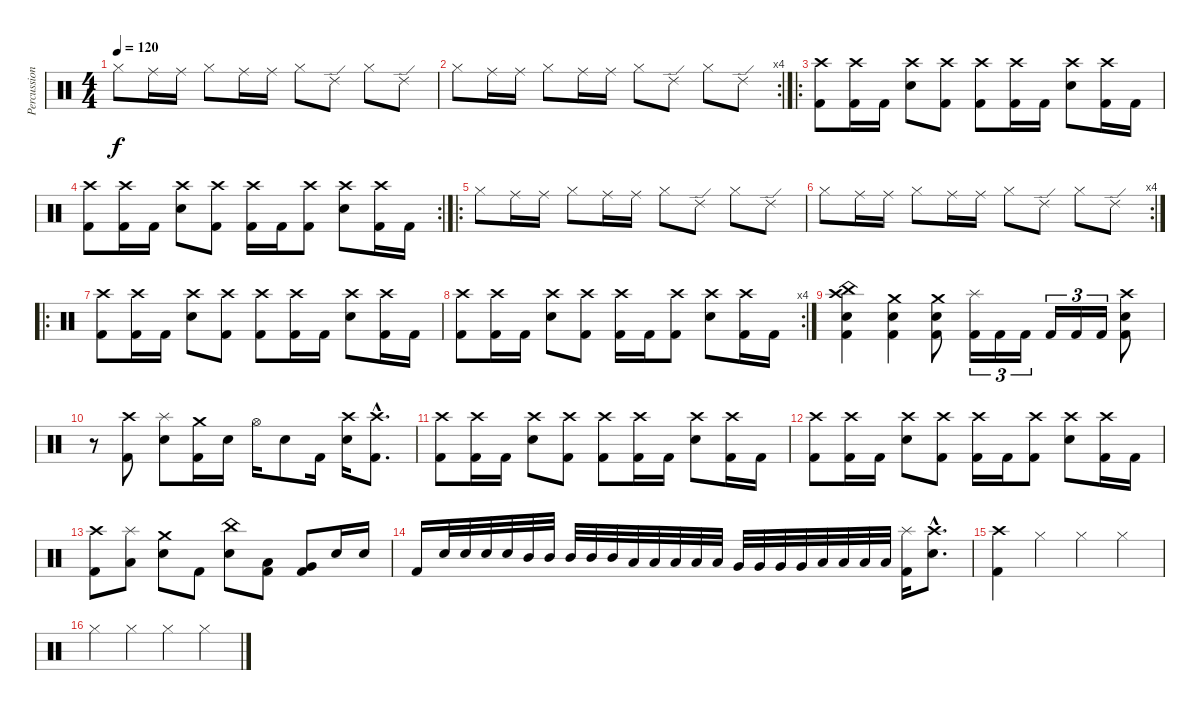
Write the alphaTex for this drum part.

\track ("Percussion" "Percussion") {instrument percussion}
\staff {score}
\articulation defaults
\ts (4 4)
\tempo 120
\clef neutral
\ks c "Hi-Hat (closed)".8{dy f} "Ride (middle)".16 "Ride (middle)".16 "Hi-Hat (closed)".8 "Ride (middle)".16 "Ride (middle)".16 "Hi-Hat (closed)".8 "Ride (edge) 2".8 "Hi-Hat (closed)".8 "Ride (edge) 2".8
|
\rc 4 "Hi-Hat (closed)".8 "Ride (middle)".16 "Ride (middle)".16 "Hi-Hat (closed)".8 "Ride (middle)".16 "Ride (middle)".16 "Hi-Hat (closed)".8 "Ride (edge) 2".8 "Hi-Hat (closed)".8 "Ride (edge) 2".8
|
\ro
("Crash high (hit)" "Kick (hit) 2").8 ("Crash high (hit)" "Kick (hit) 2").16 "Kick (hit) 2".16 ("Crash high (hit)" "Electric Snare (hit)").8 ("Crash high (hit)" "Kick (hit) 2").8 ("Crash high (hit)" "Kick (hit) 2").8 ("Crash high (hit)" "Kick (hit) 2").16 "Kick (hit) 2".16 ("Crash high (hit)" "Electric Snare (hit)").8 ("Crash high (hit)" "Kick (hit) 2").16 "Kick (hit) 2".16 |
\rc 2
("Crash high (hit)" "Kick (hit) 2").8 ("Crash high (hit)" "Kick (hit) 2").16 "Kick (hit) 2".16 ("Crash high (hit)" "Electric Snare (hit)").8 ("Crash high (hit)" "Kick (hit) 2").8 ("Crash high (hit)" "Kick (hit) 2").16 "Kick (hit) 2".16 ("Crash high (hit)" "Kick (hit) 2").8 ("Crash high (hit)" "Electric Snare (hit)").8 ("Crash high (hit)" "Kick (hit) 2").16 "Kick (hit) 2".16 |
\ro "Hi-Hat (closed)".8 "Ride (middle)".16 "Ride (middle)".16 "Hi-Hat (closed)".8 "Ride (middle)".16 "Ride (middle)".16 "Hi-Hat (closed)".8 "Ride (edge) 2".8 "Hi-Hat (closed)".8 "Ride (edge) 2".8
|
\rc 4 "Hi-Hat (closed)".8 "Ride (middle)".16 "Ride (middle)".16 "Hi-Hat (closed)".8 "Ride (middle)".16 "Ride (middle)".16 "Hi-Hat (closed)".8 "Ride (edge) 2".8 "Hi-Hat (closed)".8 "Ride (edge) 2".8
|
\ro
("Crash high (hit)" "Kick (hit) 2").8 ("Crash high (hit)" "Kick (hit) 2").16 "Kick (hit) 2".16 ("Crash high (hit)" "Electric Snare (hit)").8 ("Crash high (hit)" "Kick (hit) 2").8 ("Crash high (hit)" "Kick (hit) 2").8 ("Crash high (hit)" "Kick (hit) 2").16 "Kick (hit) 2".16 ("Crash high (hit)" "Electric Snare (hit)").8 ("Crash high (hit)" "Kick (hit) 2").16 "Kick (hit) 2".16 |
\rc 4
("Crash high (hit)" "Kick (hit) 2").8 ("Crash high (hit)" "Kick (hit) 2").16 "Kick (hit) 2".16 ("Crash high (hit)" "Electric Snare (hit)").8 ("Crash high (hit)" "Kick (hit) 2").8 ("Crash high (hit)" "Kick (hit) 2").16 "Kick (hit) 2".16 ("Crash high (hit)" "Kick (hit) 2").8 ("Crash high (hit)" "Electric Snare (hit)").8 ("Crash high (hit)" "Kick (hit) 2").16 "Kick (hit) 2".16 |
("Crash high (hit)" "China (hit)" "Electric Snare (hit)" "Kick (hit) 2").4 ("Crash medium (hit)" "Electric Snare (hit)" "Kick (hit) 2").4 ("Crash medium (hit)" "Electric Snare (hit)" "Kick (hit) 2").8 ("Splash (hit)" "Kick (hit) 2").16{tu (3 2)} "Kick (hit) 2".16{tu (3 2)} "Kick (hit) 2".16{tu (3 2)} "Kick (hit) 2".16{tu (3 2)} "Kick (hit) 2".16{tu (3 2)} "Kick (hit) 2".16{tu (3 2)} ("Crash high (hit)" "Electric Snare (hit)" "Kick (hit) 2").8 |
r.8 ("Crash high (hit)" "Kick (hit) 2").8 ("Splash (hit)" "Electric Snare (hit)").8 ("Crash medium (hit)" "Kick (hit) 2").16 "Electric Snare (hit)".16 "Hi-Hat (open)".16 "Electric Snare (hit)".8 "Kick (hit) 2".16 ("Crash high (hit)" "Electric Snare (hit)").16 ("Crash high (hit)"{hac} "Kick (hit) 2"{hac}).8{d} |
("Crash high (hit)" "Kick (hit) 2").8 ("Crash high (hit)" "Kick (hit) 2").16 "Kick (hit) 2".16 ("Crash high (hit)" "Electric Snare (hit)").8 ("Crash high (hit)" "Kick (hit) 2").8 ("Crash high (hit)" "Kick (hit) 2").8 ("Crash high (hit)" "Kick (hit) 2").16 "Kick (hit) 2".16 ("Crash high (hit)" "Electric Snare (hit)").8 ("Crash high (hit)" "Kick (hit) 2").16 "Kick (hit) 2".16 |
("Crash high (hit)" "Kick (hit) 2").8 ("Crash high (hit)" "Kick (hit) 2").16 "Kick (hit) 2".16 ("Crash high (hit)" "Electric Snare (hit)").8 ("Crash high (hit)" "Kick (hit) 2").8 ("Crash high (hit)" "Kick (hit) 2").16 "Kick (hit) 2".16 ("Crash high (hit)" "Kick (hit) 2").8 ("Crash high (hit)" "Electric Snare (hit)").8 ("Crash high (hit)" "Kick (hit) 2").16 "Kick (hit) 2".16 |
("Crash high (hit)" "Kick (hit) 2").8 ("Splash (hit)" "Low Tom (hit)").8 ("Crash medium (hit)" "Electric Snare (hit)").8 "Kick (hit) 2".8 ("China (hit)" "Electric Snare (hit)").8 ("Low Tom (hit)" "Kick (hit) 2").8 ("Very Low Tom (hit)" "Kick (hit) 2").8 "Electric Snare (hit)".16 "Electric Snare (hit)".16 |
"Kick (hit) 2".16 "Electric Snare (hit)".32 "Electric Snare (hit)".32 "Electric Snare (hit)".32 "Electric Snare (hit)".32 "Mid Tom (hit)".32 "Mid Tom (hit)".32 "Mid Tom (hit)".32 "Mid Tom (hit)".32 "Mid Tom (hit)".32 "Low Tom (hit)".32 "Low Tom (hit)".32 "Low Tom (hit)".32 "Low Tom (hit)".32 "Low Tom (hit)".32 "Very Low Tom (hit)".32 "Very Low Tom (hit)".32 "Very Low Tom (hit)".32 "Very Low Tom (hit)".32 "Low Floor Tom (hit)".32 "Low Floor Tom (hit)".32 "Low Floor Tom (hit)".32 "Low Floor Tom (hit)".32 ("Splash (hit)" "Kick (hit) 2").16 ("Crash high (hit)"{hac} "Electric Snare (hit)"{hac}).8{d} |
("Crash high (hit)" "Kick (hit) 2").4 "Hi-Hat (closed)".4 "Hi-Hat (closed)".4 "Hi-Hat (closed)".4 |
"Hi-Hat (closed)".4 "Hi-Hat (closed)".4 "Hi-Hat (closed)".4 "Hi-Hat (closed)".4
